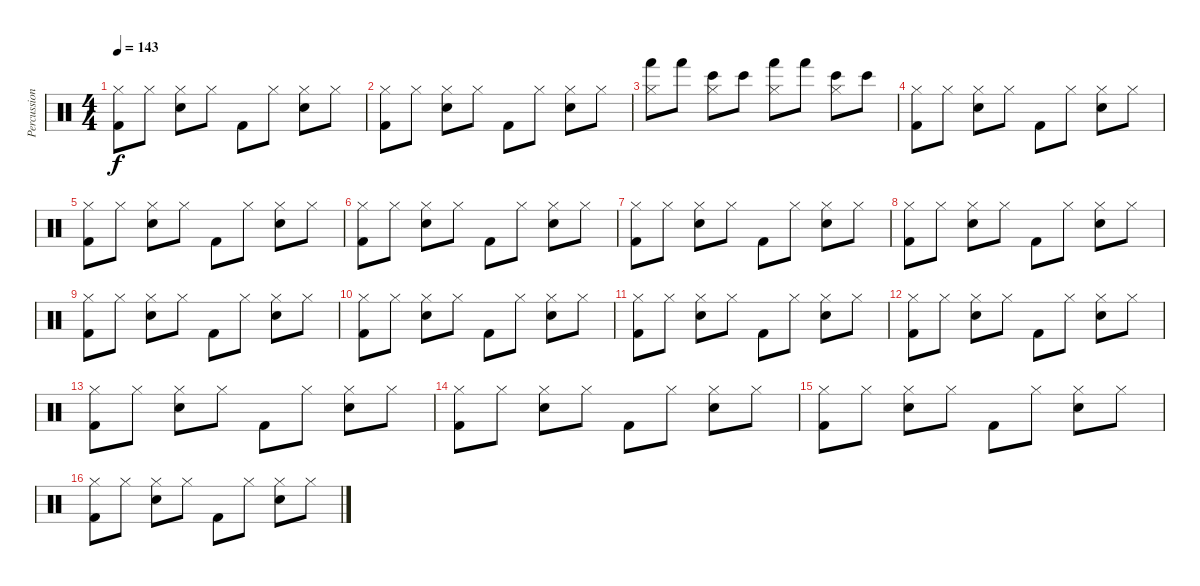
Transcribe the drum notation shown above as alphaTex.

\track ("Percussion" "Percussion") {instrument percussion}
\staff {score}
\articulation defaults
\ts (4 4)
\tempo 143
\clef neutral
\ks c
("Hi-Hat (closed)" "Kick (hit) 2").8{dy f} "Hi-Hat (closed)".8 ("Hi-Hat (closed)" "Electric Snare (hit)").8 "Hi-Hat (closed)".8 "Kick (hit) 2".8 "Hi-Hat (closed)".8 ("Hi-Hat (closed)" "Electric Snare (hit)").8 "Hi-Hat (closed)".8 |
("Hi-Hat (closed)" "Kick (hit) 2").8 "Hi-Hat (closed)".8 ("Hi-Hat (closed)" "Electric Snare (hit)").8 "Hi-Hat (closed)".8 "Kick (hit) 2".8 "Hi-Hat (closed)".8 ("Hi-Hat (closed)" "Electric Snare (hit)").8 "Hi-Hat (closed)".8 |
("Hi-Hat (closed)" "Hand (hit)").8 "Hand (hit)".8 ("Hi-Hat (closed)" "Bongo High (hit)").8 "Bongo High (hit)".8 ("Hi-Hat (closed)" "Hand (hit)").8 "Hand (hit)".8 ("Hi-Hat (closed)" "Bongo High (hit)").8 "Bongo High (hit)".8 |
("Hi-Hat (closed)" "Kick (hit) 2").8 "Hi-Hat (closed)".8 ("Hi-Hat (closed)" "Electric Snare (hit)").8 "Hi-Hat (closed)".8 "Kick (hit) 2".8 "Hi-Hat (closed)".8 ("Hi-Hat (closed)" "Electric Snare (hit)").8 "Hi-Hat (closed)".8 |
("Hi-Hat (closed)" "Kick (hit) 2").8 "Hi-Hat (closed)".8 ("Hi-Hat (closed)" "Electric Snare (hit)").8 "Hi-Hat (closed)".8 "Kick (hit) 2".8 "Hi-Hat (closed)".8 ("Hi-Hat (closed)" "Electric Snare (hit)").8 "Hi-Hat (closed)".8 |
("Hi-Hat (closed)" "Kick (hit) 2").8 "Hi-Hat (closed)".8 ("Hi-Hat (closed)" "Electric Snare (hit)").8 "Hi-Hat (closed)".8 "Kick (hit) 2".8 "Hi-Hat (closed)".8 ("Hi-Hat (closed)" "Electric Snare (hit)").8 "Hi-Hat (closed)".8 |
("Hi-Hat (closed)" "Kick (hit) 2").8 "Hi-Hat (closed)".8 ("Hi-Hat (closed)" "Electric Snare (hit)").8 "Hi-Hat (closed)".8 "Kick (hit) 2".8 "Hi-Hat (closed)".8 ("Hi-Hat (closed)" "Electric Snare (hit)").8 "Hi-Hat (closed)".8 |
("Hi-Hat (closed)" "Kick (hit) 2").8 "Hi-Hat (closed)".8 ("Hi-Hat (closed)" "Electric Snare (hit)").8 "Hi-Hat (closed)".8 "Kick (hit) 2".8 "Hi-Hat (closed)".8 ("Hi-Hat (closed)" "Electric Snare (hit)").8 "Hi-Hat (closed)".8 |
("Hi-Hat (closed)" "Kick (hit) 2").8 "Hi-Hat (closed)".8 ("Hi-Hat (closed)" "Electric Snare (hit)").8 "Hi-Hat (closed)".8 "Kick (hit) 2".8 "Hi-Hat (closed)".8 ("Hi-Hat (closed)" "Electric Snare (hit)").8 "Hi-Hat (closed)".8 |
("Hi-Hat (closed)" "Kick (hit) 2").8 "Hi-Hat (closed)".8 ("Hi-Hat (closed)" "Electric Snare (hit)").8 "Hi-Hat (closed)".8 "Kick (hit) 2".8 "Hi-Hat (closed)".8 ("Hi-Hat (closed)" "Electric Snare (hit)").8 "Hi-Hat (closed)".8 |
("Hi-Hat (closed)" "Kick (hit) 2").8 "Hi-Hat (closed)".8 ("Hi-Hat (closed)" "Electric Snare (hit)").8 "Hi-Hat (closed)".8 "Kick (hit) 2".8 "Hi-Hat (closed)".8 ("Hi-Hat (closed)" "Electric Snare (hit)").8 "Hi-Hat (closed)".8 |
("Hi-Hat (closed)" "Kick (hit) 2").8 "Hi-Hat (closed)".8 ("Hi-Hat (closed)" "Electric Snare (hit)").8 "Hi-Hat (closed)".8 "Kick (hit) 2".8 "Hi-Hat (closed)".8 ("Hi-Hat (closed)" "Electric Snare (hit)").8 "Hi-Hat (closed)".8 |
("Hi-Hat (closed)" "Kick (hit) 2").8 "Hi-Hat (closed)".8 ("Hi-Hat (closed)" "Electric Snare (hit)").8 "Hi-Hat (closed)".8 "Kick (hit) 2".8 "Hi-Hat (closed)".8 ("Hi-Hat (closed)" "Electric Snare (hit)").8 "Hi-Hat (closed)".8 |
("Hi-Hat (closed)" "Kick (hit) 2").8 "Hi-Hat (closed)".8 ("Hi-Hat (closed)" "Electric Snare (hit)").8 "Hi-Hat (closed)".8 "Kick (hit) 2".8 "Hi-Hat (closed)".8 ("Hi-Hat (closed)" "Electric Snare (hit)").8 "Hi-Hat (closed)".8 |
("Hi-Hat (closed)" "Kick (hit) 2").8 "Hi-Hat (closed)".8 ("Hi-Hat (closed)" "Electric Snare (hit)").8 "Hi-Hat (closed)".8 "Kick (hit) 2".8 "Hi-Hat (closed)".8 ("Hi-Hat (closed)" "Electric Snare (hit)").8 "Hi-Hat (closed)".8 |
("Hi-Hat (closed)" "Kick (hit) 2").8 "Hi-Hat (closed)".8 ("Hi-Hat (closed)" "Electric Snare (hit)").8 "Hi-Hat (closed)".8 "Kick (hit) 2".8 "Hi-Hat (closed)".8 ("Hi-Hat (closed)" "Electric Snare (hit)").8 "Hi-Hat (closed)".8
